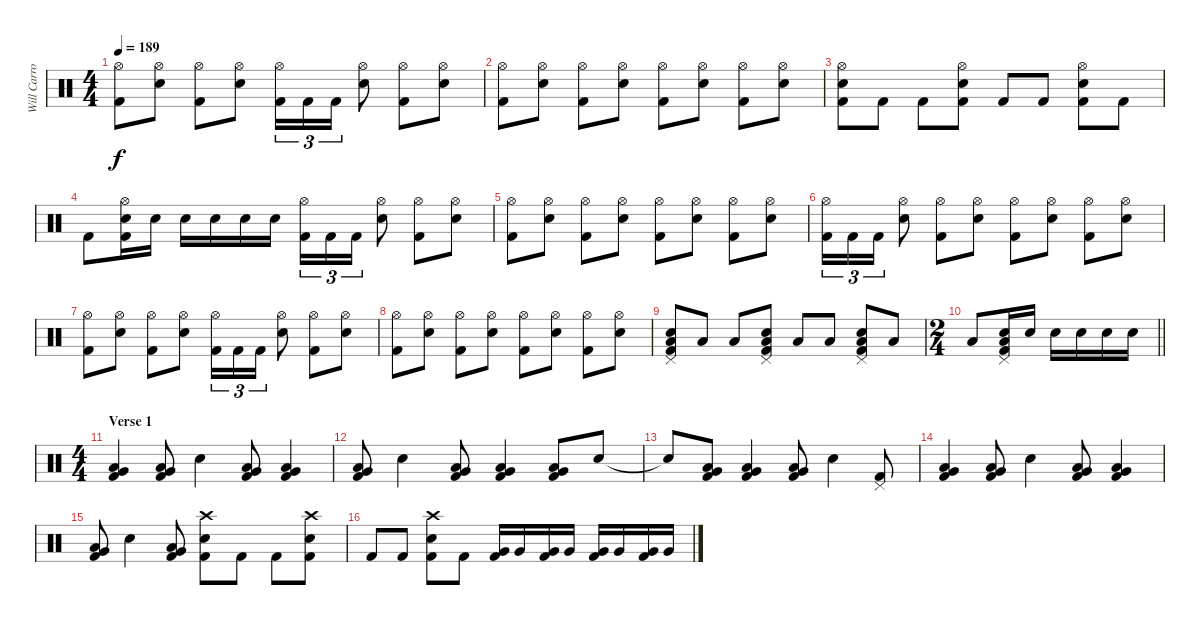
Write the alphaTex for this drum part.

\track ("Will Carroll" "Will Carro") {instrument percussion}
\staff {score}
\articulation defaults
\ts (4 4)
\tempo 189
\clef neutral
\ks c
("Hi-Hat (open)" "Kick (hit) 2").8{dy f} ("Hi-Hat (open)" "Electric Snare (hit)").8 ("Hi-Hat (open)" "Kick (hit) 2").8 ("Hi-Hat (open)" "Electric Snare (hit)").8 ("Hi-Hat (open)" "Kick (hit) 2").16{tu (3 2)} "Kick (hit) 2".16{tu (3 2)} "Kick (hit) 2".16{tu (3 2)} ("Hi-Hat (open)" "Electric Snare (hit)").8 ("Hi-Hat (open)" "Kick (hit) 2").8 ("Hi-Hat (open)" "Electric Snare (hit)").8 |
("Hi-Hat (open)" "Kick (hit) 2").8 ("Hi-Hat (open)" "Electric Snare (hit)").8 ("Hi-Hat (open)" "Kick (hit) 2").8 ("Hi-Hat (open)" "Electric Snare (hit)").8 ("Hi-Hat (open)" "Kick (hit) 2").8 ("Hi-Hat (open)" "Electric Snare (hit)").8 ("Hi-Hat (open)" "Kick (hit) 2").8 ("Hi-Hat (open)" "Electric Snare (hit)").8 |
("Hi-Hat (open)" "Electric Snare (hit)" "Kick (hit) 2").8 "Kick (hit) 2".8 "Kick (hit) 2".8 ("Hi-Hat (open)" "Electric Snare (hit)" "Kick (hit) 2").8 "Kick (hit) 2".8 "Kick (hit) 2".8 ("Hi-Hat (open)" "Electric Snare (hit)" "Kick (hit) 2").8 "Kick (hit) 2".8 |
"Kick (hit) 2".8 ("Hi-Hat (open)" "Electric Snare (hit)" "Kick (hit) 2").16 "Electric Snare (hit)".16 "Electric Snare (hit)".16 "Electric Snare (hit)".16 "Electric Snare (hit)".16 "Electric Snare (hit)".16 ("Hi-Hat (open)" "Kick (hit) 2").16{tu (3 2)} "Kick (hit) 2".16{tu (3 2)} "Kick (hit) 2".16{tu (3 2)} ("Hi-Hat (open)" "Electric Snare (hit)").8 ("Hi-Hat (open)" "Kick (hit) 2").8 ("Hi-Hat (open)" "Electric Snare (hit)").8 |
("Hi-Hat (open)" "Kick (hit) 2").8 ("Hi-Hat (open)" "Electric Snare (hit)").8 ("Hi-Hat (open)" "Kick (hit) 2").8 ("Hi-Hat (open)" "Electric Snare (hit)").8 ("Hi-Hat (open)" "Kick (hit) 2").8 ("Hi-Hat (open)" "Electric Snare (hit)").8 ("Hi-Hat (open)" "Kick (hit) 2").8 ("Hi-Hat (open)" "Electric Snare (hit)").8 |
("Hi-Hat (open)" "Kick (hit) 2").16{tu (3 2)} "Kick (hit) 2".16{tu (3 2)} "Kick (hit) 2".16{tu (3 2)} ("Hi-Hat (open)" "Electric Snare (hit)").8 ("Hi-Hat (open)" "Kick (hit) 2").8 ("Hi-Hat (open)" "Electric Snare (hit)").8 ("Hi-Hat (open)" "Kick (hit) 2").8 ("Hi-Hat (open)" "Electric Snare (hit)").8 ("Hi-Hat (open)" "Kick (hit) 2").8 ("Hi-Hat (open)" "Electric Snare (hit)").8 |
("Hi-Hat (open)" "Kick (hit) 2").8 ("Hi-Hat (open)" "Electric Snare (hit)").8 ("Hi-Hat (open)" "Kick (hit) 2").8 ("Hi-Hat (open)" "Electric Snare (hit)").8 ("Hi-Hat (open)" "Kick (hit) 2").16{tu (3 2)} "Kick (hit) 2".16{tu (3 2)} "Kick (hit) 2".16{tu (3 2)} ("Hi-Hat (open)" "Electric Snare (hit)").8 ("Hi-Hat (open)" "Kick (hit) 2").8 ("Hi-Hat (open)" "Electric Snare (hit)").8 |
("Hi-Hat (open)" "Kick (hit) 2").8 ("Hi-Hat (open)" "Electric Snare (hit)").8 ("Hi-Hat (open)" "Kick (hit) 2").8 ("Hi-Hat (open)" "Electric Snare (hit)").8 ("Hi-Hat (open)" "Kick (hit) 2").8 ("Hi-Hat (open)" "Electric Snare (hit)").8 ("Hi-Hat (open)" "Kick (hit) 2").8 ("Hi-Hat (open)" "Electric Snare (hit)").8 |
("Pedal Hi-Hat (hit)" "Low Tom (hit)" "Electric Snare (hit)" "Kick (hit) 2").8 "Low Tom (hit)".8 "Low Tom (hit)".8 ("Pedal Hi-Hat (hit)" "Low Tom (hit)" "Electric Snare (hit)" "Kick (hit) 2").8 "Low Tom (hit)".8 "Low Tom (hit)".8 ("Pedal Hi-Hat (hit)" "Low Tom (hit)" "Electric Snare (hit)" "Kick (hit) 2").8 "Low Tom (hit)".8 |
\ts (2 4)
\barLineRight lightlight "Low Tom (hit)".8
("Pedal Hi-Hat (hit)" "Low Tom (hit)" "Electric Snare (hit)" "Kick (hit) 2").16 "Electric Snare (hit)".16 "Electric Snare (hit)".16 "Electric Snare (hit)".16 "Electric Snare (hit)".16 "Electric Snare (hit)".16 |
\ts (4 4)
\section ("" "Verse 1")
("Very Low Tom (hit)" "Low Floor Tom (hit)" "Kick (hit) 2").4 ("Very Low Tom (hit)" "Low Floor Tom (hit)" "Kick (hit) 2").8 "Electric Snare (hit)".4 ("Very Low Tom (hit)" "Low Floor Tom (hit)" "Kick (hit) 2").8 ("Very Low Tom (hit)" "Low Floor Tom (hit)" "Kick (hit) 2").4 |
("Very Low Tom (hit)" "Low Floor Tom (hit)" "Kick (hit) 2").8 "Electric Snare (hit)".4 ("Very Low Tom (hit)" "Low Floor Tom (hit)" "Kick (hit) 2").8 ("Very Low Tom (hit)" "Low Floor Tom (hit)" "Kick (hit) 2").4 ("Very Low Tom (hit)" "Low Floor Tom (hit)" "Kick (hit) 2").8 "Electric Snare (hit)".8 |
"Snare (hit)"{t}.8 ("Very Low Tom (hit)" "Low Floor Tom (hit)" "Kick (hit) 2").8 ("Very Low Tom (hit)" "Low Floor Tom (hit)" "Kick (hit) 2").4 ("Very Low Tom (hit)" "Low Floor Tom (hit)" "Kick (hit) 2").8 "Electric Snare (hit)".4 ("Pedal Hi-Hat (hit)" "Kick (hit) 2").8 |
("Very Low Tom (hit)" "Low Floor Tom (hit)" "Kick (hit) 2").4 ("Very Low Tom (hit)" "Low Floor Tom (hit)" "Kick (hit) 2").8 "Electric Snare (hit)".4 ("Very Low Tom (hit)" "Low Floor Tom (hit)" "Kick (hit) 2").8 ("Very Low Tom (hit)" "Low Floor Tom (hit)" "Kick (hit) 2").4 |
("Very Low Tom (hit)" "Low Floor Tom (hit)" "Kick (hit) 2").8 "Electric Snare (hit)".4 ("Very Low Tom (hit)" "Low Floor Tom (hit)" "Kick (hit) 2").8 ("Crash high (hit)" "Electric Snare (hit)" "Kick (hit) 2").8 "Kick (hit) 2".8 "Kick (hit) 2".8 ("Crash high (hit)" "Electric Snare (hit)" "Kick (hit) 2").8 |
"Kick (hit) 2".8 "Kick (hit) 2".8 ("Crash high (hit)" "Electric Snare (hit)" "Kick (hit) 2").8 "Kick (hit) 2".8 ("Very Low Tom (hit)" "Kick (hit) 2").16 "Very Low Tom (hit)".16 ("Very Low Tom (hit)" "Kick (hit) 2").16 "Very Low Tom (hit)".16 ("Very Low Tom (hit)" "Kick (hit) 2").16 "Very Low Tom (hit)".16 ("Very Low Tom (hit)" "Kick (hit) 2").16 "Very Low Tom (hit)".16
